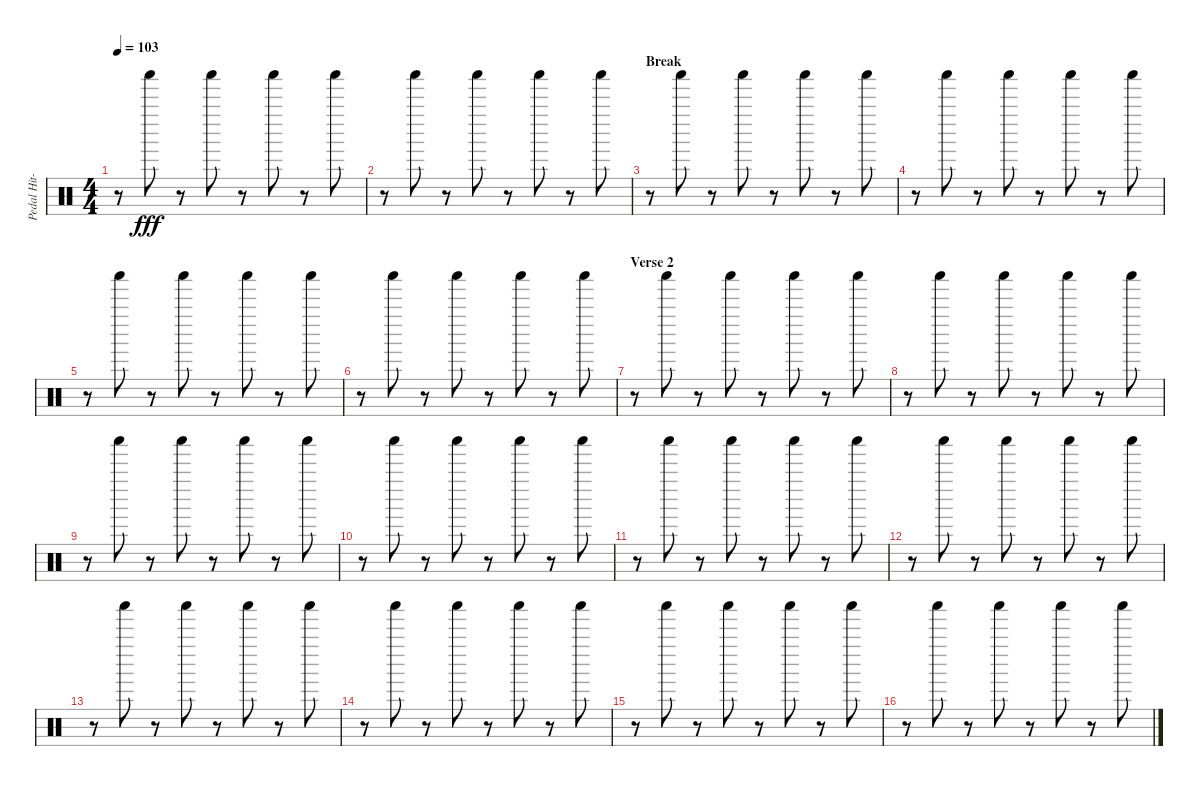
\track ("Pedal Hit-Hat" "Pedal Hit-") {instrument percussion}
\staff {score}
\articulation defaults
\ts (4 4)
\tempo 103
\clef neutral
\ks c
r.8{dy fff} "Shaker (hit)".8 r.8 "Shaker (hit)".8 r.8 "Shaker (hit)".8 r.8 "Shaker (hit)".8 |
r.8 "Shaker (hit)".8 r.8 "Shaker (hit)".8 r.8 "Shaker (hit)".8 r.8 "Shaker (hit)".8 |
\section ("" "Break ")
r.8 "Shaker (hit)".8 r.8 "Shaker (hit)".8 r.8 "Shaker (hit)".8 r.8 "Shaker (hit)".8 |
r.8 "Shaker (hit)".8 r.8 "Shaker (hit)".8 r.8 "Shaker (hit)".8 r.8 "Shaker (hit)".8 |
r.8 "Shaker (hit)".8 r.8 "Shaker (hit)".8 r.8 "Shaker (hit)".8 r.8 "Shaker (hit)".8 |
r.8 "Shaker (hit)".8 r.8 "Shaker (hit)".8 r.8 "Shaker (hit)".8 r.8 "Shaker (hit)".8 |
\section ("" "Verse 2")
r.8 "Shaker (hit)".8 r.8 "Shaker (hit)".8 r.8 "Shaker (hit)".8 r.8 "Shaker (hit)".8 |
r.8 "Shaker (hit)".8 r.8 "Shaker (hit)".8 r.8 "Shaker (hit)".8 r.8 "Shaker (hit)".8 |
r.8 "Shaker (hit)".8 r.8 "Shaker (hit)".8 r.8 "Shaker (hit)".8 r.8 "Shaker (hit)".8 |
r.8 "Shaker (hit)".8 r.8 "Shaker (hit)".8 r.8 "Shaker (hit)".8 r.8 "Shaker (hit)".8 |
r.8 "Shaker (hit)".8 r.8 "Shaker (hit)".8 r.8 "Shaker (hit)".8 r.8 "Shaker (hit)".8 |
r.8 "Shaker (hit)".8 r.8 "Shaker (hit)".8 r.8 "Shaker (hit)".8 r.8 "Shaker (hit)".8 |
r.8 "Shaker (hit)".8 r.8 "Shaker (hit)".8 r.8 "Shaker (hit)".8 r.8 "Shaker (hit)".8 |
r.8 "Shaker (hit)".8 r.8 "Shaker (hit)".8 r.8 "Shaker (hit)".8 r.8 "Shaker (hit)".8 |
r.8 "Shaker (hit)".8 r.8 "Shaker (hit)".8 r.8 "Shaker (hit)".8 r.8 "Shaker (hit)".8 |
r.8 "Shaker (hit)".8 r.8 "Shaker (hit)".8 r.8 "Shaker (hit)".8 r.8 "Shaker (hit)".8
